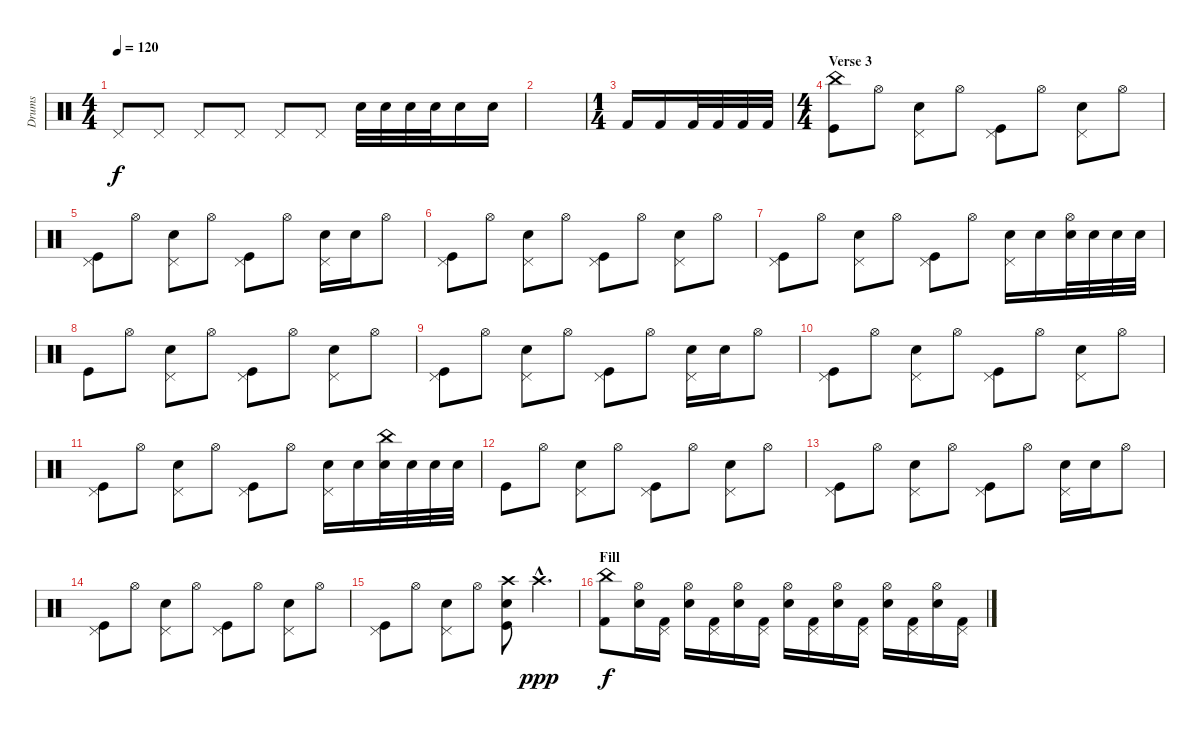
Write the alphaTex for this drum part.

\track ("Drums" "Drums") {instrument percussion}
\staff {score}
\articulation defaults
\ts (4 4)
\tempo 120
\clef neutral
\ks c "Pedal Hi-Hat (hit)".8{dy f} "Pedal Hi-Hat (hit)".8 "Pedal Hi-Hat (hit)".8 "Pedal Hi-Hat (hit)".8 "Pedal Hi-Hat (hit)".8 "Pedal Hi-Hat (hit)".8 "Electric Snare (hit)".32 "Electric Snare (hit)".32 "Electric Snare (hit)".32 "Electric Snare (hit)".32 "Electric Snare (hit)".16 "Electric Snare (hit)".16
|
|
\ts (1 4)
"Kick (hit) 2".16 "Kick (hit) 2".16 "Kick (hit) 2".32 "Kick (hit) 2".32 "Kick (hit) 2".32 "Kick (hit) 2".32 |
\ts (4 4)
\section ("" "Verse 3")
("China (hit)" "Kick (hit)").8 "Hi-Hat (open)".8 ("Pedal Hi-Hat (hit)" "Electric Snare (hit)").8 "Hi-Hat (open)".8 ("Pedal Hi-Hat (hit)" "Kick (hit)").8 "Hi-Hat (open)".8 ("Pedal Hi-Hat (hit)" "Electric Snare (hit)").8 "Hi-Hat (open)".8 |
("Pedal Hi-Hat (hit)" "Kick (hit)").8 "Hi-Hat (open)".8 ("Pedal Hi-Hat (hit)" "Electric Snare (hit)").8 "Hi-Hat (open)".8 ("Pedal Hi-Hat (hit)" "Kick (hit)").8 "Hi-Hat (open)".8 ("Pedal Hi-Hat (hit)" "Electric Snare (hit)").16 "Electric Snare (hit)".16 "Hi-Hat (open)".8 |
("Pedal Hi-Hat (hit)" "Kick (hit)").8 "Hi-Hat (open)".8 ("Pedal Hi-Hat (hit)" "Electric Snare (hit)").8 "Hi-Hat (open)".8 ("Pedal Hi-Hat (hit)" "Kick (hit)").8 "Hi-Hat (open)".8 ("Pedal Hi-Hat (hit)" "Electric Snare (hit)").8 "Hi-Hat (open)".8 |
("Pedal Hi-Hat (hit)" "Kick (hit)").8 "Hi-Hat (open)".8 ("Pedal Hi-Hat (hit)" "Electric Snare (hit)").8 "Hi-Hat (open)".8 ("Pedal Hi-Hat (hit)" "Kick (hit)").8 "Hi-Hat (open)".8 ("Pedal Hi-Hat (hit)" "Electric Snare (hit)").16 "Electric Snare (hit)".16 ("Hi-Hat (open)" "Electric Snare (hit)").32 "Electric Snare (hit)".32 "Electric Snare (hit)".32 "Electric Snare (hit)".32 |
"Kick (hit)".8 "Hi-Hat (open)".8 ("Pedal Hi-Hat (hit)" "Electric Snare (hit)").8 "Hi-Hat (open)".8 ("Pedal Hi-Hat (hit)" "Kick (hit)").8 "Hi-Hat (open)".8 ("Pedal Hi-Hat (hit)" "Electric Snare (hit)").8 "Hi-Hat (open)".8 |
("Pedal Hi-Hat (hit)" "Kick (hit)").8 "Hi-Hat (open)".8 ("Pedal Hi-Hat (hit)" "Electric Snare (hit)").8 "Hi-Hat (open)".8 ("Pedal Hi-Hat (hit)" "Kick (hit)").8 "Hi-Hat (open)".8 ("Pedal Hi-Hat (hit)" "Electric Snare (hit)").16 "Electric Snare (hit)".16 "Hi-Hat (open)".8 |
("Pedal Hi-Hat (hit)" "Kick (hit)").8 "Hi-Hat (open)".8 ("Pedal Hi-Hat (hit)" "Electric Snare (hit)").8 "Hi-Hat (open)".8 ("Pedal Hi-Hat (hit)" "Kick (hit)").8 "Hi-Hat (open)".8 ("Pedal Hi-Hat (hit)" "Electric Snare (hit)").8 "Hi-Hat (open)".8 |
("Pedal Hi-Hat (hit)" "Kick (hit)").8 "Hi-Hat (open)".8 ("Pedal Hi-Hat (hit)" "Electric Snare (hit)").8 "Hi-Hat (open)".8 ("Pedal Hi-Hat (hit)" "Kick (hit)").8 "Hi-Hat (open)".8 ("Pedal Hi-Hat (hit)" "Electric Snare (hit)").16 "Electric Snare (hit)".16 ("China (hit)" "Electric Snare (hit)").32 "Electric Snare (hit)".32 "Electric Snare (hit)".32 "Electric Snare (hit)".32 |
"Kick (hit)".8 "Hi-Hat (open)".8 ("Pedal Hi-Hat (hit)" "Electric Snare (hit)").8 "Hi-Hat (open)".8 ("Pedal Hi-Hat (hit)" "Kick (hit)").8 "Hi-Hat (open)".8 ("Pedal Hi-Hat (hit)" "Electric Snare (hit)").8 "Hi-Hat (open)".8 |
("Pedal Hi-Hat (hit)" "Kick (hit)").8 "Hi-Hat (open)".8 ("Pedal Hi-Hat (hit)" "Electric Snare (hit)").8 "Hi-Hat (open)".8 ("Pedal Hi-Hat (hit)" "Kick (hit)").8 "Hi-Hat (open)".8 ("Pedal Hi-Hat (hit)" "Electric Snare (hit)").16 "Electric Snare (hit)".16 "Hi-Hat (open)".8 |
("Pedal Hi-Hat (hit)" "Kick (hit)").8 "Hi-Hat (open)".8 ("Pedal Hi-Hat (hit)" "Electric Snare (hit)").8 "Hi-Hat (open)".8 ("Pedal Hi-Hat (hit)" "Kick (hit)").8 "Hi-Hat (open)".8 ("Pedal Hi-Hat (hit)" "Electric Snare (hit)").8 "Hi-Hat (open)".8 |
("Pedal Hi-Hat (hit)" "Kick (hit)").8 "Hi-Hat (open)".8 ("Pedal Hi-Hat (hit)" "Electric Snare (hit)").8 "Hi-Hat (open)".8 ("Crash high (hit)" "Electric Snare (hit)" "Kick (hit)").8 "Crash high (hit)"{hac}.4{d dy ppp} |
\section ("" "Fill")
("China (hit)" "Kick (hit) 2").8{dy f} ("Hi-Hat (open)" "Electric Snare (hit)").16 ("Pedal Hi-Hat (hit)" "Kick (hit) 2").16 ("Hi-Hat (open)" "Electric Snare (hit)").16 ("Pedal Hi-Hat (hit)" "Kick (hit) 2").16 ("Hi-Hat (open)" "Electric Snare (hit)").16 ("Pedal Hi-Hat (hit)" "Kick (hit) 2").16 ("Hi-Hat (open)" "Electric Snare (hit)").16 ("Pedal Hi-Hat (hit)" "Kick (hit) 2").16 ("Hi-Hat (open)" "Electric Snare (hit)").16 ("Pedal Hi-Hat (hit)" "Kick (hit) 2").16 ("Hi-Hat (open)" "Electric Snare (hit)").16 ("Pedal Hi-Hat (hit)" "Kick (hit) 2").16 ("Hi-Hat (open)" "Electric Snare (hit)").16 ("Pedal Hi-Hat (hit)" "Kick (hit) 2").16
